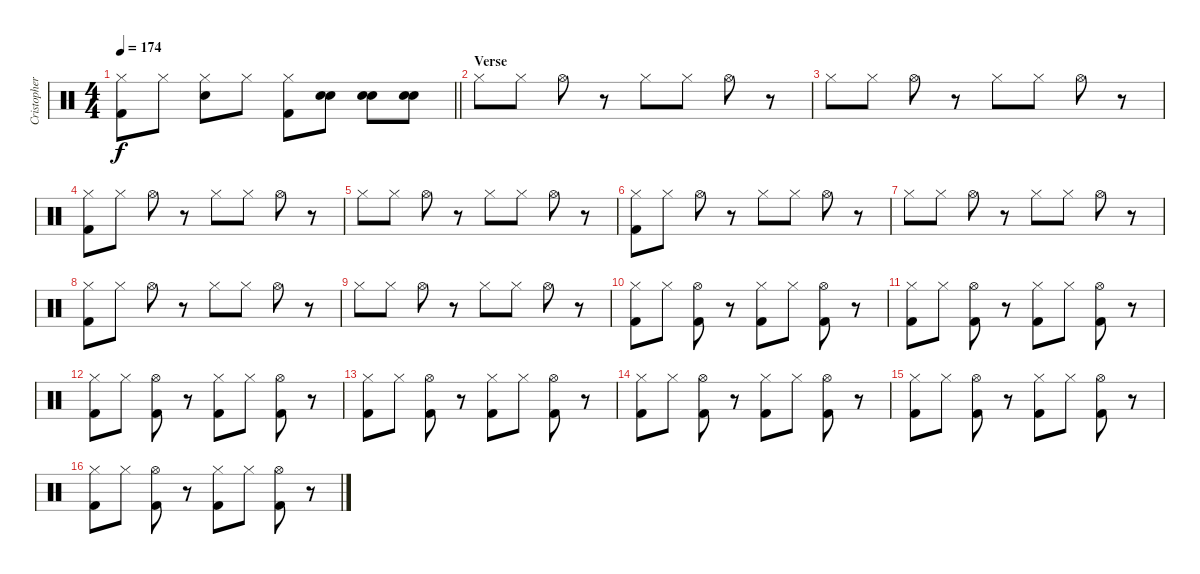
\track ("Cristopher S. (Drums)" "Cristopher") {instrument percussion}
\staff {score}
\articulation defaults
\ts (4 4)
\tempo 174
\clef neutral
\barLineRight lightlight
\ks c
("Kick (hit) 2" "Hi-Hat (closed)").8{dy f} "Hi-Hat (closed)".8 ("Electric Snare (hit)" "Hi-Hat (closed)").8 "Hi-Hat (closed)".8 ("Kick (hit) 2" "Hi-Hat (closed)").8 ("Electric Snare (hit)" "Electric Snare (hit)").8 ("Electric Snare (hit)" "Electric Snare (hit)").8 ("Electric Snare (hit)" "Electric Snare (hit)").8 |
\section ("" "Verse")
"Hi-Hat (closed)".8 "Hi-Hat (closed)".8 "Hi-Hat (open)".8 r.8 "Hi-Hat (closed)".8 "Hi-Hat (closed)".8 "Hi-Hat (open)".8 r.8 |
"Hi-Hat (closed)".8 "Hi-Hat (closed)".8 "Hi-Hat (open)".8 r.8 "Hi-Hat (closed)".8 "Hi-Hat (closed)".8 "Hi-Hat (open)".8 r.8 |
("Hi-Hat (closed)" "Kick (hit) 2").8 "Hi-Hat (closed)".8 "Hi-Hat (open)".8 r.8 "Hi-Hat (closed)".8 "Hi-Hat (closed)".8 "Hi-Hat (open)".8 r.8 |
"Hi-Hat (closed)".8 "Hi-Hat (closed)".8 "Hi-Hat (open)".8 r.8 "Hi-Hat (closed)".8 "Hi-Hat (closed)".8 "Hi-Hat (open)".8 r.8 |
("Hi-Hat (closed)" "Kick (hit) 2").8 "Hi-Hat (closed)".8 "Hi-Hat (open)".8 r.8 "Hi-Hat (closed)".8 "Hi-Hat (closed)".8 "Hi-Hat (open)".8 r.8 |
"Hi-Hat (closed)".8 "Hi-Hat (closed)".8 "Hi-Hat (open)".8 r.8 "Hi-Hat (closed)".8 "Hi-Hat (closed)".8 "Hi-Hat (open)".8 r.8 |
("Hi-Hat (closed)" "Kick (hit) 2").8 "Hi-Hat (closed)".8 "Hi-Hat (open)".8 r.8 "Hi-Hat (closed)".8 "Hi-Hat (closed)".8 "Hi-Hat (open)".8 r.8 |
"Hi-Hat (closed)".8 "Hi-Hat (closed)".8 "Hi-Hat (open)".8 r.8 "Hi-Hat (closed)".8 "Hi-Hat (closed)".8 "Hi-Hat (open)".8 r.8 |
("Hi-Hat (closed)" "Kick (hit) 2").8 "Hi-Hat (closed)".8 ("Hi-Hat (open)" "Kick (hit) 2").8 r.8 ("Hi-Hat (closed)" "Kick (hit) 2").8 "Hi-Hat (closed)".8 ("Hi-Hat (open)" "Kick (hit) 2").8 r.8 |
("Hi-Hat (closed)" "Kick (hit) 2").8 "Hi-Hat (closed)".8 ("Hi-Hat (open)" "Kick (hit) 2").8 r.8 ("Hi-Hat (closed)" "Kick (hit) 2").8 "Hi-Hat (closed)".8 ("Hi-Hat (open)" "Kick (hit) 2").8 r.8 |
("Hi-Hat (closed)" "Kick (hit) 2").8 "Hi-Hat (closed)".8 ("Hi-Hat (open)" "Kick (hit) 2").8 r.8 ("Hi-Hat (closed)" "Kick (hit) 2").8 "Hi-Hat (closed)".8 ("Hi-Hat (open)" "Kick (hit) 2").8 r.8 |
("Hi-Hat (closed)" "Kick (hit) 2").8 "Hi-Hat (closed)".8 ("Hi-Hat (open)" "Kick (hit) 2").8 r.8 ("Hi-Hat (closed)" "Kick (hit) 2").8 "Hi-Hat (closed)".8 ("Hi-Hat (open)" "Kick (hit) 2").8 r.8 |
("Hi-Hat (closed)" "Kick (hit) 2").8 "Hi-Hat (closed)".8 ("Hi-Hat (open)" "Kick (hit) 2").8 r.8 ("Hi-Hat (closed)" "Kick (hit) 2").8 "Hi-Hat (closed)".8 ("Hi-Hat (open)" "Kick (hit) 2").8 r.8 |
("Hi-Hat (closed)" "Kick (hit) 2").8 "Hi-Hat (closed)".8 ("Hi-Hat (open)" "Kick (hit) 2").8 r.8 ("Hi-Hat (closed)" "Kick (hit) 2").8 "Hi-Hat (closed)".8 ("Hi-Hat (open)" "Kick (hit) 2").8 r.8 |
("Hi-Hat (closed)" "Kick (hit) 2").8 "Hi-Hat (closed)".8 ("Hi-Hat (open)" "Kick (hit) 2").8 r.8 ("Hi-Hat (closed)" "Kick (hit) 2").8 "Hi-Hat (closed)".8 ("Hi-Hat (open)" "Kick (hit) 2").8 r.8
